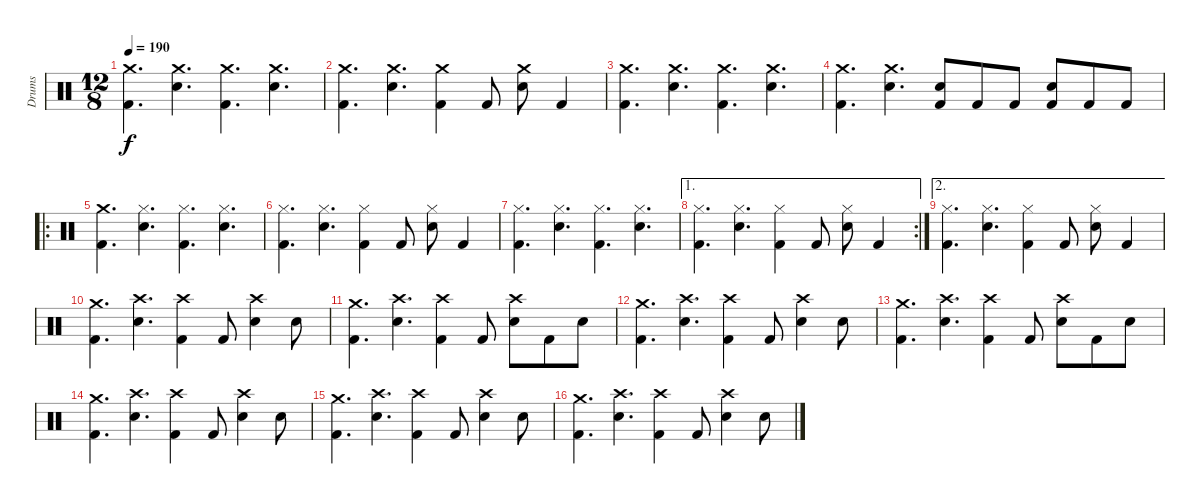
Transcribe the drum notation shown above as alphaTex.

\track ("Drums" "Drums") {instrument percussion}
\staff {score}
\articulation defaults
\ts (12 8)
\tempo 190
\clef neutral
\ks c
("Crash medium (hit)" "Kick (hit) 2").4{d dy f} ("Crash medium (hit)" "Electric Snare (hit)").4{d} ("Crash medium (hit)" "Kick (hit) 2").4{d} ("Crash medium (hit)" "Electric Snare (hit)").4{d} |
("Crash medium (hit)" "Kick (hit) 2").4{d} ("Crash medium (hit)" "Electric Snare (hit)").4{d} ("Crash medium (hit)" "Kick (hit) 2").4 "Kick (hit) 2".8 ("Crash medium (hit)" "Electric Snare (hit)").8 "Kick (hit) 2".4 |
("Crash medium (hit)" "Kick (hit) 2").4{d} ("Crash medium (hit)" "Electric Snare (hit)").4{d} ("Crash medium (hit)" "Kick (hit) 2").4{d} ("Crash medium (hit)" "Electric Snare (hit)").4{d} |
("Crash medium (hit)" "Kick (hit) 2").4{d} ("Crash medium (hit)" "Electric Snare (hit)").4{d} ("Electric Snare (hit)" "Kick (hit) 2").8 "Kick (hit) 2".8 "Kick (hit) 2".8 ("Electric Snare (hit)" "Kick (hit) 2").8 "Kick (hit) 2".8 "Kick (hit) 2".8 |
\ro
("Crash medium (hit)" "Kick (hit) 2").4{d} ("Hi-Hat (closed)" "Electric Snare (hit)").4{d} ("Hi-Hat (closed)" "Kick (hit) 2").4{d} ("Hi-Hat (closed)" "Electric Snare (hit)").4{d} |
("Hi-Hat (closed)" "Kick (hit) 2").4{d} ("Hi-Hat (closed)" "Electric Snare (hit)").4{d} ("Hi-Hat (closed)" "Kick (hit) 2").4 "Kick (hit) 2".8 ("Hi-Hat (closed)" "Electric Snare (hit)").8 "Kick (hit) 2".4 |
("Hi-Hat (closed)" "Kick (hit) 2").4{d} ("Hi-Hat (closed)" "Electric Snare (hit)").4{d} ("Hi-Hat (closed)" "Kick (hit) 2").4{d} ("Hi-Hat (closed)" "Electric Snare (hit)").4{d} |
\ae 1
\rc 2
("Hi-Hat (closed)" "Kick (hit) 2").4{d} ("Hi-Hat (closed)" "Electric Snare (hit)").4{d} ("Hi-Hat (closed)" "Kick (hit) 2").4 "Kick (hit) 2".8 ("Hi-Hat (closed)" "Electric Snare (hit)").8 "Kick (hit) 2".4 |
\ae 2
("Hi-Hat (closed)" "Kick (hit) 2").4{d} ("Hi-Hat (closed)" "Electric Snare (hit)").4{d} ("Hi-Hat (closed)" "Kick (hit) 2").4 "Kick (hit) 2".8 ("Hi-Hat (closed)" "Electric Snare (hit)").8 "Kick (hit) 2".4 |
("Crash medium (hit)" "Kick (hit) 2").4{d} ("Crash high (hit)" "Electric Snare (hit)").4{d} ("Crash high (hit)" "Kick (hit) 2").4 "Kick (hit) 2".8 ("Crash high (hit)" "Electric Snare (hit)").4 "Electric Snare (hit)".8 |
("Crash medium (hit)" "Kick (hit) 2").4{d} ("Crash high (hit)" "Electric Snare (hit)").4{d} ("Crash high (hit)" "Kick (hit) 2").4 "Kick (hit) 2".8 ("Crash high (hit)" "Electric Snare (hit)").8 "Kick (hit) 2".8 "Electric Snare (hit)".8 |
("Crash medium (hit)" "Kick (hit) 2").4{d} ("Crash high (hit)" "Electric Snare (hit)").4{d} ("Crash high (hit)" "Kick (hit) 2").4 "Kick (hit) 2".8 ("Crash high (hit)" "Electric Snare (hit)").4 "Electric Snare (hit)".8 |
("Crash medium (hit)" "Kick (hit) 2").4{d} ("Crash high (hit)" "Electric Snare (hit)").4{d} ("Crash high (hit)" "Kick (hit) 2").4 "Kick (hit) 2".8 ("Crash high (hit)" "Electric Snare (hit)").8 "Kick (hit) 2".8 "Electric Snare (hit)".8 |
("Crash medium (hit)" "Kick (hit) 2").4{d} ("Crash high (hit)" "Electric Snare (hit)").4{d} ("Crash high (hit)" "Kick (hit) 2").4 "Kick (hit) 2".8 ("Crash high (hit)" "Electric Snare (hit)").4 "Electric Snare (hit)".8 |
("Crash medium (hit)" "Kick (hit) 2").4{d} ("Crash high (hit)" "Electric Snare (hit)").4{d} ("Crash high (hit)" "Kick (hit) 2").4 "Kick (hit) 2".8 ("Crash high (hit)" "Electric Snare (hit)").4 "Electric Snare (hit)".8 |
("Crash medium (hit)" "Kick (hit) 2").4{d} ("Crash high (hit)" "Electric Snare (hit)").4{d} ("Crash high (hit)" "Kick (hit) 2").4 "Kick (hit) 2".8 ("Crash high (hit)" "Electric Snare (hit)").4 "Electric Snare (hit)".8
